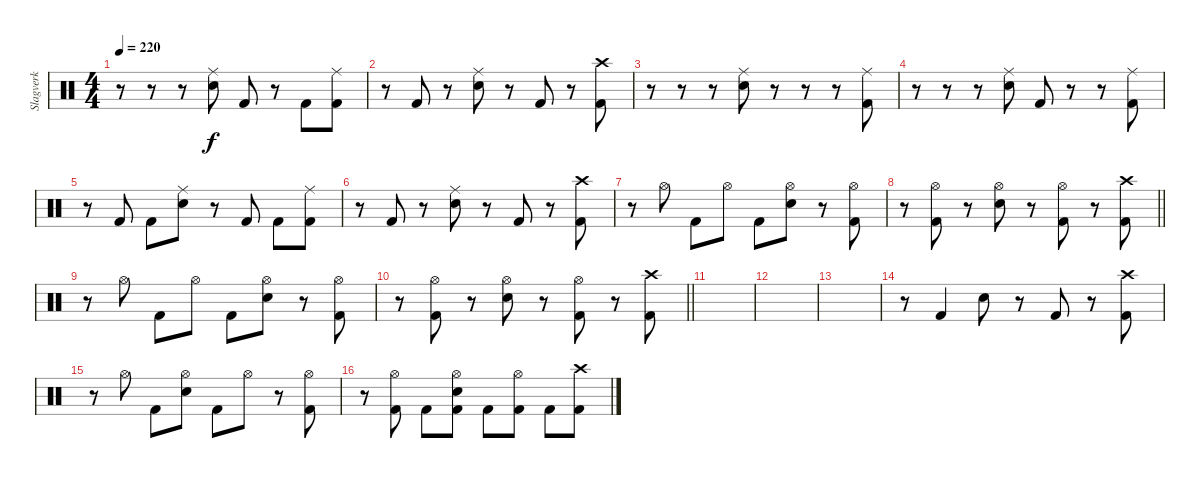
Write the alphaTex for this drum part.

\track ("Slagverk" "Slagverk") {instrument percussion}
\staff {score}
\articulation defaults
\ts (4 4)
\tempo 220
\clef neutral
\ks c
r.8{dy f} r.8 r.8 ("Ride (middle)" "Electric Snare (hit)").8 "Kick (hit) 2".8 r.8 "Kick (hit) 2".8 ("Ride (middle)" "Kick (hit) 2").8 |
r.8 "Kick (hit) 2".8 r.8 ("Ride (middle)" "Electric Snare (hit)").8 r.8 "Kick (hit) 2".8 r.8 ("Crash high (hit)" "Kick (hit) 2").8 |
r.8 r.8 r.8 ("Ride (middle)" "Electric Snare (hit)").8 r.8 r.8 r.8 ("Ride (middle)" "Kick (hit) 2").8 |
r.8 r.8 r.8 ("Ride (middle)" "Electric Snare (hit)").8 "Kick (hit) 2".8 r.8 r.8 ("Ride (middle)" "Kick (hit) 2").8 |
r.8 "Kick (hit) 2".8 "Kick (hit) 2".8 ("Ride (middle)" "Electric Snare (hit)").8 r.8 "Kick (hit) 2".8 "Kick (hit) 2".8 ("Ride (middle)" "Kick (hit) 2").8 |
r.8 "Kick (hit) 2".8 r.8 ("Ride (middle)" "Electric Snare (hit)").8 r.8 "Kick (hit) 2".8 r.8 ("Crash high (hit)" "Kick (hit) 2").8 |
r.8 "Hi-Hat (open)".8 "Kick (hit) 2".8 "Hi-Hat (open)".8 "Kick (hit) 2".8 ("Hi-Hat (open)" "Electric Snare (hit)").8 r.8 ("Hi-Hat (open)" "Kick (hit) 2").8 |
\barLineRight lightlight
r.8 ("Hi-Hat (open)" "Kick (hit) 2").8 r.8 ("Hi-Hat (open)" "Electric Snare (hit)").8 r.8 ("Hi-Hat (open)" "Kick (hit) 2").8 r.8 ("Crash high (hit)" "Kick (hit) 2").8 |
r.8 "Hi-Hat (open)".8 "Kick (hit) 2".8 "Hi-Hat (open)".8 "Kick (hit) 2".8 ("Hi-Hat (open)" "Electric Snare (hit)").8 r.8 ("Hi-Hat (open)" "Kick (hit) 2").8 |
\barLineRight lightlight
r.8 ("Hi-Hat (open)" "Kick (hit) 2").8 r.8 ("Hi-Hat (open)" "Electric Snare (hit)").8 r.8 ("Hi-Hat (open)" "Kick (hit) 2").8 r.8 ("Crash high (hit)" "Kick (hit) 2").8 |
|
|
|
r.8 "Kick (hit) 2".4 "Electric Snare (hit)".8 r.8 "Kick (hit) 2".8 r.8 ("Crash high (hit)" "Kick (hit) 2").8 |
r.8 "Hi-Hat (open)".8 "Kick (hit) 2".8 ("Hi-Hat (open)" "Electric Snare (hit)").8 "Kick (hit) 2".8 "Hi-Hat (open)".8 r.8 ("Hi-Hat (open)" "Kick (hit) 2").8 |
r.8 ("Hi-Hat (open)" "Kick (hit) 2").8 "Kick (hit) 2".8 ("Hi-Hat (open)" "Electric Snare (hit)" "Kick (hit) 2").8 "Kick (hit) 2".8 ("Hi-Hat (open)" "Kick (hit) 2").8 "Kick (hit) 2".8 ("Crash high (hit)" "Kick (hit) 2").8
